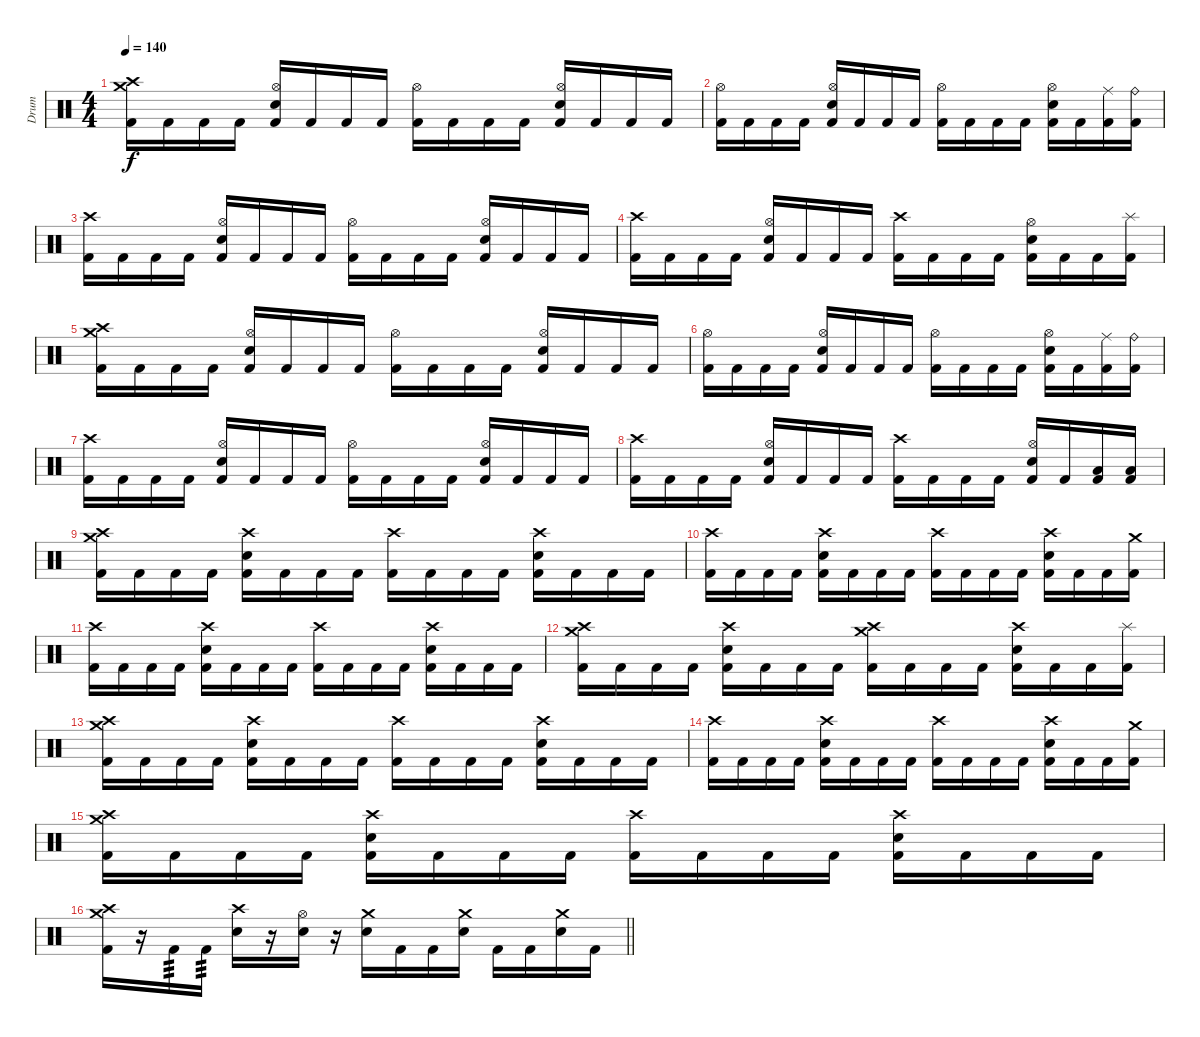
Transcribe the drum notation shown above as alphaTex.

\track ("Drum" "Drum") {instrument percussion}
\staff {score}
\articulation defaults
\ts (4 4)
\section ("" "")
\tempo 140
\clef neutral
\ks c
("Crash high (hit)" "Crash medium (hit)" "Kick (hit) 2").16{dy f} "Kick (hit) 2".16 "Kick (hit) 2".16 "Kick (hit) 2".16 ("Hi-Hat (open)" "Snare (hit) 2" "Kick (hit) 2").16 "Kick (hit) 2".16 "Kick (hit) 2".16 "Kick (hit) 2".16 ("Hi-Hat (open)" "Kick (hit) 2").16 "Kick (hit) 2".16 "Kick (hit) 2".16 "Kick (hit) 2".16 ("Hi-Hat (open)" "Snare (hit) 2" "Kick (hit) 2").16 "Kick (hit) 2".16 "Kick (hit) 2".16 "Kick (hit) 2".16 |
("Hi-Hat (open)" "Kick (hit) 2").16 "Kick (hit) 2".16 "Kick (hit) 2".16 "Kick (hit) 2".16 ("Hi-Hat (open)" "Snare (hit) 2" "Kick (hit) 2").16 "Kick (hit) 2".16 "Kick (hit) 2".16 "Kick (hit) 2".16 ("Hi-Hat (open)" "Kick (hit) 2").16 "Kick (hit) 2".16 "Kick (hit) 2".16 "Kick (hit) 2".16 ("Hi-Hat (open)" "Snare (hit) 2" "Kick (hit) 2").16 "Kick (hit) 2".16 ("Ride (middle)" "Kick (hit) 2").16 ("Ride (bell)" "Kick (hit) 2").16 |
("Crash high (hit)" "Kick (hit) 2").16 "Kick (hit) 2".16 "Kick (hit) 2".16 "Kick (hit) 2".16 ("Hi-Hat (open)" "Snare (hit) 2" "Kick (hit) 2").16 "Kick (hit) 2".16 "Kick (hit) 2".16 "Kick (hit) 2".16 ("Hi-Hat (open)" "Kick (hit) 2").16 "Kick (hit) 2".16 "Kick (hit) 2".16 "Kick (hit) 2".16 ("Hi-Hat (open)" "Snare (hit) 2" "Kick (hit) 2").16 "Kick (hit) 2".16 "Kick (hit) 2".16 "Kick (hit) 2".16 |
("Crash high (hit)" "Kick (hit) 2").16 "Kick (hit) 2".16 "Kick (hit) 2".16 "Kick (hit) 2".16 ("Hi-Hat (open)" "Snare (hit) 2" "Kick (hit) 2").16 "Kick (hit) 2".16 "Kick (hit) 2".16 "Kick (hit) 2".16 ("Crash high (hit)" "Kick (hit) 2").16 "Kick (hit) 2".16 "Kick (hit) 2".16 "Kick (hit) 2".16 ("Hi-Hat (open)" "Snare (hit) 2" "Kick (hit) 2").16 "Kick (hit) 2".16 "Kick (hit) 2".16 ("Splash (hit)" "Kick (hit) 2").16 |
("Crash high (hit)" "Crash medium (hit)" "Kick (hit) 2").16 "Kick (hit) 2".16 "Kick (hit) 2".16 "Kick (hit) 2".16 ("Hi-Hat (open)" "Snare (hit) 2" "Kick (hit) 2").16 "Kick (hit) 2".16 "Kick (hit) 2".16 "Kick (hit) 2".16 ("Hi-Hat (open)" "Kick (hit) 2").16 "Kick (hit) 2".16 "Kick (hit) 2".16 "Kick (hit) 2".16 ("Hi-Hat (open)" "Snare (hit) 2" "Kick (hit) 2").16 "Kick (hit) 2".16 "Kick (hit) 2".16 "Kick (hit) 2".16 |
("Hi-Hat (open)" "Kick (hit) 2").16 "Kick (hit) 2".16 "Kick (hit) 2".16 "Kick (hit) 2".16 ("Hi-Hat (open)" "Snare (hit) 2" "Kick (hit) 2").16 "Kick (hit) 2".16 "Kick (hit) 2".16 "Kick (hit) 2".16 ("Hi-Hat (open)" "Kick (hit) 2").16 "Kick (hit) 2".16 "Kick (hit) 2".16 "Kick (hit) 2".16 ("Hi-Hat (open)" "Snare (hit) 2" "Kick (hit) 2").16 "Kick (hit) 2".16 ("Ride (middle)" "Kick (hit) 2").16 ("Ride (bell)" "Kick (hit) 2").16 |
("Crash high (hit)" "Kick (hit) 2").16 "Kick (hit) 2".16 "Kick (hit) 2".16 "Kick (hit) 2".16 ("Hi-Hat (open)" "Snare (hit) 2" "Kick (hit) 2").16 "Kick (hit) 2".16 "Kick (hit) 2".16 "Kick (hit) 2".16 ("Hi-Hat (open)" "Kick (hit) 2").16 "Kick (hit) 2".16 "Kick (hit) 2".16 "Kick (hit) 2".16 ("Hi-Hat (open)" "Snare (hit) 2" "Kick (hit) 2").16 "Kick (hit) 2".16 "Kick (hit) 2".16 "Kick (hit) 2".16 |
("Crash high (hit)" "Kick (hit) 2").16 "Kick (hit) 2".16 "Kick (hit) 2".16 "Kick (hit) 2".16 ("Hi-Hat (open)" "Snare (hit) 2" "Kick (hit) 2").16 "Kick (hit) 2".16 "Kick (hit) 2".16 "Kick (hit) 2".16 ("Crash high (hit)" "Kick (hit) 2").16 "Kick (hit) 2".16 "Kick (hit) 2".16 "Kick (hit) 2".16 ("Hi-Hat (open)" "Snare (hit) 2" "Kick (hit) 2").16 "Kick (hit) 2".16 ("Low Floor Tom (hit)" "Kick (hit) 2").16 ("Low Floor Tom (hit)" "Kick (hit) 2").16 |
("Crash high (hit)" "Crash medium (hit)" "Kick (hit) 2").16 "Kick (hit) 2".16 "Kick (hit) 2".16 "Kick (hit) 2".16 ("Crash high (hit)" "Snare (hit) 2" "Kick (hit) 2").16 "Kick (hit) 2".16 "Kick (hit) 2".16 "Kick (hit) 2".16 ("Crash high (hit)" "Kick (hit) 2").16 "Kick (hit) 2".16 "Kick (hit) 2".16 "Kick (hit) 2".16 ("Crash high (hit)" "Snare (hit) 2" "Kick (hit) 2").16 "Kick (hit) 2".16 "Kick (hit) 2".16 "Kick (hit) 2".16 |
("Crash high (hit)" "Kick (hit) 2").16 "Kick (hit) 2".16 "Kick (hit) 2".16 "Kick (hit) 2".16 ("Crash high (hit)" "Snare (hit) 2" "Kick (hit) 2").16 "Kick (hit) 2".16 "Kick (hit) 2".16 "Kick (hit) 2".16 ("Crash high (hit)" "Kick (hit) 2").16 "Kick (hit) 2".16 "Kick (hit) 2".16 "Kick (hit) 2".16 ("Crash high (hit)" "Snare (hit) 2" "Kick (hit) 2").16 "Kick (hit) 2".16 "Kick (hit) 2".16 ("Crash medium (hit)" "Kick (hit) 2").16 |
("Crash high (hit)" "Kick (hit) 2").16 "Kick (hit) 2".16 "Kick (hit) 2".16 "Kick (hit) 2".16 ("Crash high (hit)" "Snare (hit) 2" "Kick (hit) 2").16 "Kick (hit) 2".16 "Kick (hit) 2".16 "Kick (hit) 2".16 ("Crash high (hit)" "Kick (hit) 2").16 "Kick (hit) 2".16 "Kick (hit) 2".16 "Kick (hit) 2".16 ("Crash high (hit)" "Snare (hit) 2" "Kick (hit) 2").16 "Kick (hit) 2".16 "Kick (hit) 2".16 "Kick (hit) 2".16 |
("Crash high (hit)" "Crash medium (hit)" "Kick (hit) 2").16 "Kick (hit) 2".16 "Kick (hit) 2".16 "Kick (hit) 2".16 ("Crash high (hit)" "Snare (hit) 2" "Kick (hit) 2").16 "Kick (hit) 2".16 "Kick (hit) 2".16 "Kick (hit) 2".16 ("Crash high (hit)" "Crash medium (hit)" "Kick (hit) 2").16 "Kick (hit) 2".16 "Kick (hit) 2".16 "Kick (hit) 2".16 ("Crash high (hit)" "Snare (hit) 2" "Kick (hit) 2").16 "Kick (hit) 2".16 "Kick (hit) 2".16 ("Splash (hit)" "Kick (hit) 2").16 |
("Crash high (hit)" "Crash medium (hit)" "Kick (hit) 2").16 "Kick (hit) 2".16 "Kick (hit) 2".16 "Kick (hit) 2".16 ("Crash high (hit)" "Snare (hit) 2" "Kick (hit) 2").16 "Kick (hit) 2".16 "Kick (hit) 2".16 "Kick (hit) 2".16 ("Crash high (hit)" "Kick (hit) 2").16 "Kick (hit) 2".16 "Kick (hit) 2".16 "Kick (hit) 2".16 ("Crash high (hit)" "Snare (hit) 2" "Kick (hit) 2").16 "Kick (hit) 2".16 "Kick (hit) 2".16 "Kick (hit) 2".16 |
("Crash high (hit)" "Kick (hit) 2").16 "Kick (hit) 2".16 "Kick (hit) 2".16 "Kick (hit) 2".16 ("Crash high (hit)" "Snare (hit) 2" "Kick (hit) 2").16 "Kick (hit) 2".16 "Kick (hit) 2".16 "Kick (hit) 2".16 ("Crash high (hit)" "Kick (hit) 2").16 "Kick (hit) 2".16 "Kick (hit) 2".16 "Kick (hit) 2".16 ("Crash high (hit)" "Snare (hit) 2" "Kick (hit) 2").16 "Kick (hit) 2".16 "Kick (hit) 2".16 ("Crash medium (hit)" "Kick (hit) 2").16 |
("Crash high (hit)" "Crash medium (hit)" "Kick (hit) 2").16 "Kick (hit) 2".16 "Kick (hit) 2".16 "Kick (hit) 2".16 ("Crash high (hit)" "Snare (hit) 2" "Kick (hit) 2").16 "Kick (hit) 2".16 "Kick (hit) 2".16 "Kick (hit) 2".16 ("Crash high (hit)" "Kick (hit) 2").16 "Kick (hit) 2".16 "Kick (hit) 2".16 "Kick (hit) 2".16 ("Crash high (hit)" "Snare (hit) 2" "Kick (hit) 2").16 "Kick (hit) 2".16 "Kick (hit) 2".16 "Kick (hit) 2".16 |
\barLineRight lightlight
("Crash high (hit)" "Crash medium (hit)" "Kick (hit) 2").16 r.16 "Kick (hit) 2".16{tp 3} "Kick (hit) 2".16{tp 3} ("Crash high (hit)" "Snare (hit) 2").16 r.16 ("Hi-Hat (open)" "Snare (hit) 2").16 r.16 ("Crash medium (hit)" "Snare (hit) 2").16 "Kick (hit) 2".16 "Kick (hit) 2".16 ("Crash medium (hit)" "Snare (hit) 2").16 "Kick (hit) 2".16 "Kick (hit) 2".16 ("Crash medium (hit)" "Snare (hit) 2").16 "Kick (hit) 2".16
